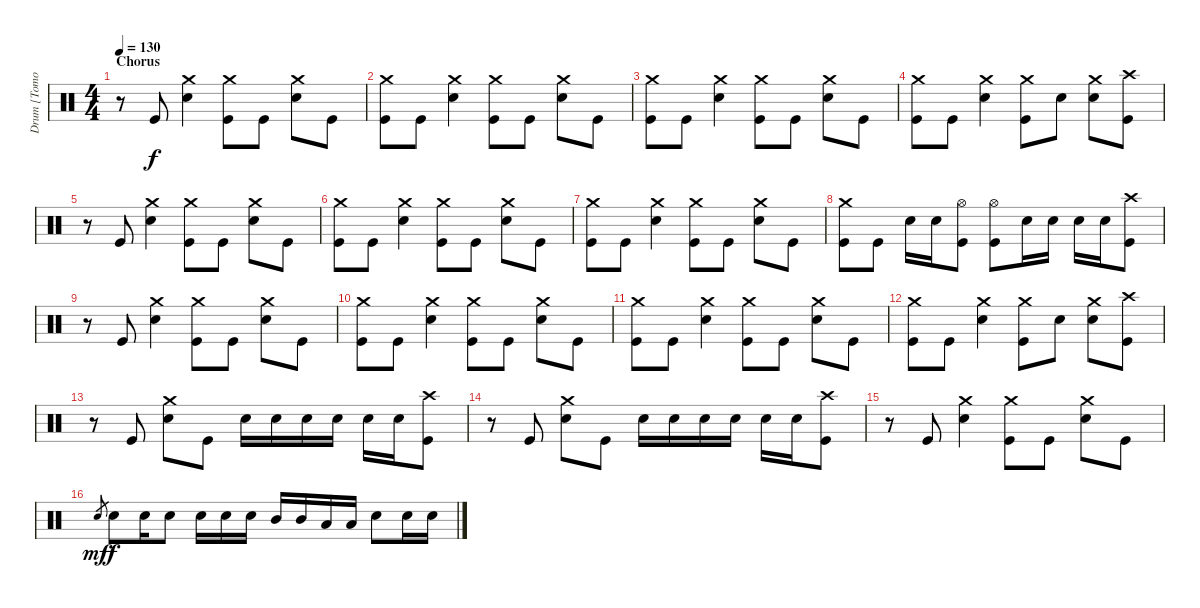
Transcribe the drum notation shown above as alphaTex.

\track ("Drum [Tomoya]" "Drum [Tomo") {instrument percussion}
\staff {score}
\articulation defaults
\ts (4 4)
\section ("" "Chorus")
\tempo 130
\clef neutral
\ks c
r.8{dy f} "Kick (hit)".8 ("Crash medium (hit)" "Snare (hit) 2").4 ("Crash medium (hit)" "Kick (hit)").8 "Kick (hit)".8 ("Snare (hit) 2" "Crash medium (hit)").8 "Kick (hit)".8 |
("Crash medium (hit)" "Kick (hit)").8 "Kick (hit)".8 ("Crash medium (hit)" "Snare (hit) 2").4 ("Crash medium (hit)" "Kick (hit)").8 "Kick (hit)".8 ("Snare (hit) 2" "Crash medium (hit)").8 "Kick (hit)".8 |
("Crash medium (hit)" "Kick (hit)").8 "Kick (hit)".8 ("Crash medium (hit)" "Snare (hit) 2").4 ("Crash medium (hit)" "Kick (hit)").8 "Kick (hit)".8 ("Snare (hit) 2" "Crash medium (hit)").8 "Kick (hit)".8 |
("Crash medium (hit)" "Kick (hit)").8 "Kick (hit)".8 ("Crash medium (hit)" "Snare (hit) 2").4 ("Crash medium (hit)" "Kick (hit)").8 "Snare (hit) 2".8 ("Snare (hit) 2" "Crash medium (hit)").8 ("Crash high (hit)" "Kick (hit)").8 |
r.8 "Kick (hit)".8 ("Crash medium (hit)" "Snare (hit) 2").4 ("Crash medium (hit)" "Kick (hit)").8 "Kick (hit)".8 ("Snare (hit) 2" "Crash medium (hit)").8 "Kick (hit)".8 |
("Crash medium (hit)" "Kick (hit)").8 "Kick (hit)".8 ("Crash medium (hit)" "Snare (hit) 2").4 ("Crash medium (hit)" "Kick (hit)").8 "Kick (hit)".8 ("Snare (hit) 2" "Crash medium (hit)").8 "Kick (hit)".8 |
("Crash medium (hit)" "Kick (hit)").8 "Kick (hit)".8 ("Crash medium (hit)" "Snare (hit) 2").4 ("Crash medium (hit)" "Kick (hit)").8 "Kick (hit)".8 ("Snare (hit) 2" "Crash medium (hit)").8 "Kick (hit)".8 |
("Crash medium (hit)" "Kick (hit)").8 "Kick (hit)".8 "Snare (hit) 2".16 "Snare (hit) 2".16 ("Hi-Hat (open)" "Kick (hit)").8 ("Hi-Hat (open)" "Kick (hit)").8 "Snare (hit) 2".16 "Snare (hit) 2".16 "Snare (hit) 2".16 "Snare (hit) 2".16 ("Crash high (hit)" "Kick (hit)").8 |
r.8 "Kick (hit)".8 ("Crash medium (hit)" "Snare (hit) 2").4 ("Crash medium (hit)" "Kick (hit)").8 "Kick (hit)".8 ("Snare (hit) 2" "Crash medium (hit)").8 "Kick (hit)".8 |
("Crash medium (hit)" "Kick (hit)").8 "Kick (hit)".8 ("Crash medium (hit)" "Snare (hit) 2").4 ("Crash medium (hit)" "Kick (hit)").8 "Kick (hit)".8 ("Snare (hit) 2" "Crash medium (hit)").8 "Kick (hit)".8 |
("Crash medium (hit)" "Kick (hit)").8 "Kick (hit)".8 ("Crash medium (hit)" "Snare (hit) 2").4 ("Crash medium (hit)" "Kick (hit)").8 "Kick (hit)".8 ("Snare (hit) 2" "Crash medium (hit)").8 "Kick (hit)".8 |
("Crash medium (hit)" "Kick (hit)").8 "Kick (hit)".8 ("Crash medium (hit)" "Snare (hit) 2").4 ("Crash medium (hit)" "Kick (hit)").8 "Snare (hit) 2".8 ("Snare (hit) 2" "Crash medium (hit)").8 ("Crash high (hit)" "Kick (hit)").8 |
r.8 "Kick (hit)".8 ("Crash medium (hit)" "Snare (hit) 2").8 "Kick (hit)".8 "Snare (hit) 2".16 "Snare (hit) 2".16 "Snare (hit) 2".16 "Snare (hit) 2".16 "Snare (hit) 2".16 "Snare (hit) 2".16 ("Crash high (hit)" "Kick (hit)").8 |
r.8 "Kick (hit)".8 ("Crash medium (hit)" "Snare (hit) 2").8 "Kick (hit)".8 "Snare (hit) 2".16 "Snare (hit) 2".16 "Snare (hit) 2".16 "Snare (hit) 2".16 "Snare (hit) 2".16 "Snare (hit) 2".16 ("Crash high (hit)" "Kick (hit)").8 |
r.8 "Kick (hit)".8 ("Crash medium (hit)" "Snare (hit) 2").4 ("Crash medium (hit)" "Kick (hit)").8 "Kick (hit)".8 ("Snare (hit) 2" "Crash medium (hit)").8 "Kick (hit)".8 |
"Snare (hit)".8{gr dy mf} "Snare (hit) 2".8{dy f} "Snare (hit) 2".16 "Snare (hit) 2".8 "Snare (hit) 2".16 "Snare (hit) 2".16 "Snare (hit) 2".16 "Mid Tom (hit)".16 "Mid Tom (hit)".16 "Low Tom (hit)".16 "Low Tom (hit)".16 "Snare (hit) 2".8 "Snare (hit) 2".16 "Snare (hit) 2".16
